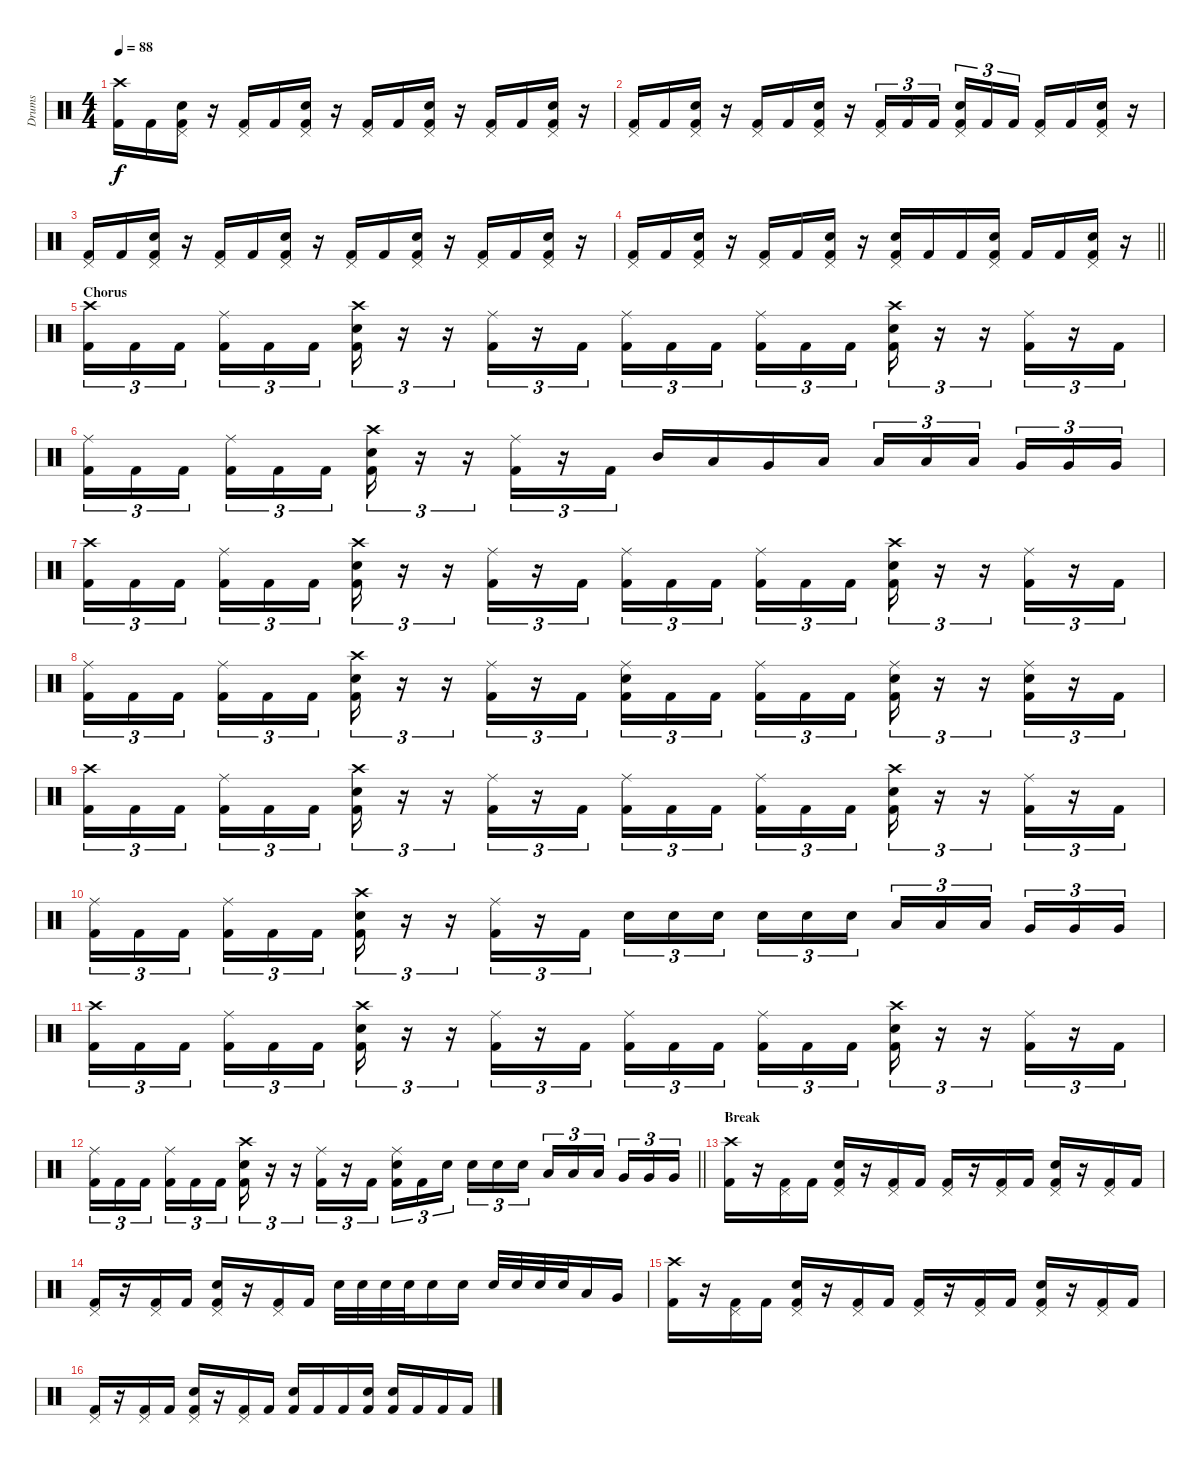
\track ("Drums" "Drums") {instrument percussion}
\staff {score}
\articulation defaults
\ts (4 4)
\tempo 88
\clef neutral
\ks c
("Crash high (hit)" "Kick (hit) 2").16{dy f} "Kick (hit) 2".16 ("Pedal Hi-Hat (hit)" "Snare (hit) 2" "Kick (hit) 2").16 r.16 ("Pedal Hi-Hat (hit)" "Kick (hit) 2").16 "Kick (hit) 2".16 ("Pedal Hi-Hat (hit)" "Snare (hit) 2" "Kick (hit) 2").16 r.16 ("Pedal Hi-Hat (hit)" "Kick (hit) 2").16 "Kick (hit) 2".16 ("Pedal Hi-Hat (hit)" "Snare (hit) 2" "Kick (hit) 2").16 r.16 ("Pedal Hi-Hat (hit)" "Kick (hit) 2").16 "Kick (hit) 2".16 ("Pedal Hi-Hat (hit)" "Snare (hit) 2" "Kick (hit) 2").16 r.16 |
("Pedal Hi-Hat (hit)" "Kick (hit) 2").16 "Kick (hit) 2".16 ("Pedal Hi-Hat (hit)" "Snare (hit) 2" "Kick (hit) 2").16 r.16 ("Pedal Hi-Hat (hit)" "Kick (hit) 2").16 "Kick (hit) 2".16 ("Pedal Hi-Hat (hit)" "Snare (hit) 2" "Kick (hit) 2").16 r.16 ("Pedal Hi-Hat (hit)" "Kick (hit) 2").16{tu (3 2)} "Kick (hit) 2".16{tu (3 2)} "Kick (hit) 2".16{tu (3 2) beam splitsecondary} ("Pedal Hi-Hat (hit)" "Snare (hit) 2" "Kick (hit) 2").16{tu (3 2)} "Kick (hit) 2".16{tu (3 2)} "Kick (hit) 2".16{tu (3 2)} ("Pedal Hi-Hat (hit)" "Kick (hit) 2").16 "Kick (hit) 2".16 ("Pedal Hi-Hat (hit)" "Snare (hit) 2" "Kick (hit) 2").16 r.16 |
("Pedal Hi-Hat (hit)" "Kick (hit) 2").16 "Kick (hit) 2".16 ("Pedal Hi-Hat (hit)" "Snare (hit) 2" "Kick (hit) 2").16 r.16 ("Pedal Hi-Hat (hit)" "Kick (hit) 2").16 "Kick (hit) 2".16 ("Pedal Hi-Hat (hit)" "Snare (hit) 2" "Kick (hit) 2").16 r.16 ("Pedal Hi-Hat (hit)" "Kick (hit) 2").16 "Kick (hit) 2".16 ("Pedal Hi-Hat (hit)" "Snare (hit) 2" "Kick (hit) 2").16 r.16 ("Pedal Hi-Hat (hit)" "Kick (hit) 2").16 "Kick (hit) 2".16 ("Pedal Hi-Hat (hit)" "Snare (hit) 2" "Kick (hit) 2").16 r.16 |
\barLineRight lightlight
("Pedal Hi-Hat (hit)" "Kick (hit) 2").16 "Kick (hit) 2".16 ("Pedal Hi-Hat (hit)" "Snare (hit) 2" "Kick (hit) 2").16 r.16 ("Pedal Hi-Hat (hit)" "Kick (hit) 2").16 "Kick (hit) 2".16 ("Pedal Hi-Hat (hit)" "Snare (hit) 2" "Kick (hit) 2").16 r.16 ("Pedal Hi-Hat (hit)" "Snare (hit) 2" "Kick (hit) 2").16 "Kick (hit) 2".16 "Kick (hit) 2".16 ("Pedal Hi-Hat (hit)" "Snare (hit) 2" "Kick (hit) 2").16 "Kick (hit) 2".16 "Kick (hit) 2".16 ("Pedal Hi-Hat (hit)" "Snare (hit) 2" "Kick (hit) 2").16 r.16 |
\section ("" "Chorus")
("Crash high (hit)" "Kick (hit) 2").16{tu (3 2)} "Kick (hit) 2".16{tu (3 2)} "Kick (hit) 2".16{tu (3 2) beam splitsecondary} ("Ride (middle)" "Kick (hit) 2").16{tu (3 2)} "Kick (hit) 2".16{tu (3 2)} "Kick (hit) 2".16{tu (3 2)} ("Crash high (hit)" "Snare (hit) 2" "Kick (hit) 2").16{tu (3 2)} r.16{tu (3 2)} r.16{tu (3 2)} ("Ride (middle)" "Kick (hit) 2").16{tu (3 2)} r.16{tu (3 2)} "Kick (hit) 2".16{tu (3 2)} ("Ride (middle)" "Kick (hit) 2").16{tu (3 2)} "Kick (hit) 2".16{tu (3 2)} "Kick (hit) 2".16{tu (3 2) beam splitsecondary} ("Ride (middle)" "Kick (hit) 2").16{tu (3 2)} "Kick (hit) 2".16{tu (3 2)} "Kick (hit) 2".16{tu (3 2)} ("Crash high (hit)" "Snare (hit) 2" "Kick (hit) 2").16{tu (3 2)} r.16{tu (3 2)} r.16{tu (3 2)} ("Ride (middle)" "Kick (hit) 2").16{tu (3 2)} r.16{tu (3 2)} "Kick (hit) 2".16{tu (3 2)} |
("Ride (middle)" "Kick (hit) 2").16{tu (3 2)} "Kick (hit) 2".16{tu (3 2)} "Kick (hit) 2".16{tu (3 2) beam splitsecondary} ("Ride (middle)" "Kick (hit) 2").16{tu (3 2)} "Kick (hit) 2".16{tu (3 2)} "Kick (hit) 2".16{tu (3 2)} ("Crash high (hit)" "Snare (hit) 2" "Kick (hit) 2").16{tu (3 2)} r.16{tu (3 2)} r.16{tu (3 2)} ("Ride (middle)" "Kick (hit) 2").16{tu (3 2)} r.16{tu (3 2)} "Kick (hit) 2".16{tu (3 2)} "Mid Tom (hit)".16 "Low Tom (hit)".16 "Very Low Tom (hit)".16 "Low Tom (hit)".16 "Low Tom (hit)".16{tu (3 2)} "Low Tom (hit)".16{tu (3 2)} "Low Tom (hit)".16{tu (3 2) beam splitsecondary} "Very Low Tom (hit)".16{tu (3 2)} "Very Low Tom (hit)".16{tu (3 2)} "Very Low Tom (hit)".16{tu (3 2)} |
("Crash high (hit)" "Kick (hit) 2").16{tu (3 2)} "Kick (hit) 2".16{tu (3 2)} "Kick (hit) 2".16{tu (3 2) beam splitsecondary} ("Ride (middle)" "Kick (hit) 2").16{tu (3 2)} "Kick (hit) 2".16{tu (3 2)} "Kick (hit) 2".16{tu (3 2)} ("Crash high (hit)" "Snare (hit) 2" "Kick (hit) 2").16{tu (3 2)} r.16{tu (3 2)} r.16{tu (3 2)} ("Ride (middle)" "Kick (hit) 2").16{tu (3 2)} r.16{tu (3 2)} "Kick (hit) 2".16{tu (3 2)} ("Ride (middle)" "Kick (hit) 2").16{tu (3 2)} "Kick (hit) 2".16{tu (3 2)} "Kick (hit) 2".16{tu (3 2) beam splitsecondary} ("Ride (middle)" "Kick (hit) 2").16{tu (3 2)} "Kick (hit) 2".16{tu (3 2)} "Kick (hit) 2".16{tu (3 2)} ("Crash high (hit)" "Snare (hit) 2" "Kick (hit) 2").16{tu (3 2)} r.16{tu (3 2)} r.16{tu (3 2)} ("Ride (middle)" "Kick (hit) 2").16{tu (3 2)} r.16{tu (3 2)} "Kick (hit) 2".16{tu (3 2)} |
("Ride (middle)" "Kick (hit) 2").16{tu (3 2)} "Kick (hit) 2".16{tu (3 2)} "Kick (hit) 2".16{tu (3 2) beam splitsecondary} ("Ride (middle)" "Kick (hit) 2").16{tu (3 2)} "Kick (hit) 2".16{tu (3 2)} "Kick (hit) 2".16{tu (3 2)} ("Crash high (hit)" "Snare (hit) 2" "Kick (hit) 2").16{tu (3 2)} r.16{tu (3 2)} r.16{tu (3 2)} ("Ride (middle)" "Kick (hit) 2").16{tu (3 2)} r.16{tu (3 2)} "Kick (hit) 2".16{tu (3 2)} ("Ride (middle)" "Snare (hit) 2" "Kick (hit) 2").16{tu (3 2)} "Kick (hit) 2".16{tu (3 2)} "Kick (hit) 2".16{tu (3 2) beam splitsecondary} ("Ride (middle)" "Kick (hit) 2").16{tu (3 2)} "Kick (hit) 2".16{tu (3 2)} "Kick (hit) 2".16{tu (3 2)} ("Ride (middle)" "Snare (hit) 2" "Kick (hit) 2").16{tu (3 2)} r.16{tu (3 2)} r.16{tu (3 2)} ("Ride (middle)" "Snare (hit) 2" "Kick (hit) 2").16{tu (3 2)} r.16{tu (3 2)} "Kick (hit) 2".16{tu (3 2)} |
("Crash high (hit)" "Kick (hit) 2").16{tu (3 2)} "Kick (hit) 2".16{tu (3 2)} "Kick (hit) 2".16{tu (3 2) beam splitsecondary} ("Ride (middle)" "Kick (hit) 2").16{tu (3 2)} "Kick (hit) 2".16{tu (3 2)} "Kick (hit) 2".16{tu (3 2)} ("Crash high (hit)" "Snare (hit) 2" "Kick (hit) 2").16{tu (3 2)} r.16{tu (3 2)} r.16{tu (3 2)} ("Ride (middle)" "Kick (hit) 2").16{tu (3 2)} r.16{tu (3 2)} "Kick (hit) 2".16{tu (3 2)} ("Ride (middle)" "Kick (hit) 2").16{tu (3 2)} "Kick (hit) 2".16{tu (3 2)} "Kick (hit) 2".16{tu (3 2) beam splitsecondary} ("Ride (middle)" "Kick (hit) 2").16{tu (3 2)} "Kick (hit) 2".16{tu (3 2)} "Kick (hit) 2".16{tu (3 2)} ("Crash high (hit)" "Snare (hit) 2" "Kick (hit) 2").16{tu (3 2)} r.16{tu (3 2)} r.16{tu (3 2)} ("Ride (middle)" "Kick (hit) 2").16{tu (3 2)} r.16{tu (3 2)} "Kick (hit) 2".16{tu (3 2)} |
("Ride (middle)" "Kick (hit) 2").16{tu (3 2)} "Kick (hit) 2".16{tu (3 2)} "Kick (hit) 2".16{tu (3 2) beam splitsecondary} ("Ride (middle)" "Kick (hit) 2").16{tu (3 2)} "Kick (hit) 2".16{tu (3 2)} "Kick (hit) 2".16{tu (3 2)} ("Crash high (hit)" "Snare (hit) 2" "Kick (hit) 2").16{tu (3 2)} r.16{tu (3 2)} r.16{tu (3 2)} ("Ride (middle)" "Kick (hit) 2").16{tu (3 2)} r.16{tu (3 2)} "Kick (hit) 2".16{tu (3 2)} "Snare (hit) 2".16{tu (3 2)} "Snare (hit) 2".16{tu (3 2)} "Snare (hit) 2".16{tu (3 2) beam splitsecondary} "Snare (hit) 2".16{tu (3 2)} "Snare (hit) 2".16{tu (3 2)} "Snare (hit) 2".16{tu (3 2)} "Low Tom (hit)".16{tu (3 2)} "Low Tom (hit)".16{tu (3 2)} "Low Tom (hit)".16{tu (3 2) beam splitsecondary} "Very Low Tom (hit)".16{tu (3 2)} "Very Low Tom (hit)".16{tu (3 2)} "Very Low Tom (hit)".16{tu (3 2)} |
("Crash high (hit)" "Kick (hit) 2").16{tu (3 2)} "Kick (hit) 2".16{tu (3 2)} "Kick (hit) 2".16{tu (3 2) beam splitsecondary} ("Ride (middle)" "Kick (hit) 2").16{tu (3 2)} "Kick (hit) 2".16{tu (3 2)} "Kick (hit) 2".16{tu (3 2)} ("Crash high (hit)" "Snare (hit) 2" "Kick (hit) 2").16{tu (3 2)} r.16{tu (3 2)} r.16{tu (3 2)} ("Ride (middle)" "Kick (hit) 2").16{tu (3 2)} r.16{tu (3 2)} "Kick (hit) 2".16{tu (3 2)} ("Ride (middle)" "Kick (hit) 2").16{tu (3 2)} "Kick (hit) 2".16{tu (3 2)} "Kick (hit) 2".16{tu (3 2) beam splitsecondary} ("Ride (middle)" "Kick (hit) 2").16{tu (3 2)} "Kick (hit) 2".16{tu (3 2)} "Kick (hit) 2".16{tu (3 2)} ("Crash high (hit)" "Snare (hit) 2" "Kick (hit) 2").16{tu (3 2)} r.16{tu (3 2)} r.16{tu (3 2)} ("Ride (middle)" "Kick (hit) 2").16{tu (3 2)} r.16{tu (3 2)} "Kick (hit) 2".16{tu (3 2)} |
\barLineRight lightlight
("Ride (middle)" "Kick (hit) 2").16{tu (3 2)} "Kick (hit) 2".16{tu (3 2)} "Kick (hit) 2".16{tu (3 2) beam splitsecondary} ("Ride (middle)" "Kick (hit) 2").16{tu (3 2)} "Kick (hit) 2".16{tu (3 2)} "Kick (hit) 2".16{tu (3 2)} ("Crash high (hit)" "Snare (hit) 2" "Kick (hit) 2").16{tu (3 2)} r.16{tu (3 2)} r.16{tu (3 2)} ("Ride (middle)" "Kick (hit) 2").16{tu (3 2)} r.16{tu (3 2)} "Kick (hit) 2".16{tu (3 2)} ("Ride (middle)" "Snare (hit) 2" "Kick (hit) 2").16{tu (3 2)} "Kick (hit) 2".16{tu (3 2)} "Snare (hit) 2".16{tu (3 2) beam splitsecondary} "Snare (hit) 2".16{tu (3 2)} "Snare (hit) 2".16{tu (3 2)} "Snare (hit) 2".16{tu (3 2)} "Low Tom (hit)".16{tu (3 2)} "Low Tom (hit)".16{tu (3 2)} "Low Tom (hit)".16{tu (3 2) beam splitsecondary} "Very Low Tom (hit)".16{tu (3 2)} "Very Low Tom (hit)".16{tu (3 2)} "Very Low Tom (hit)".16{tu (3 2)} |
\section ("" "Break")
("Crash high (hit)" "Kick (hit) 2").16 r.16 ("Pedal Hi-Hat (hit)" "Kick (hit) 2").16 "Kick (hit) 2".16 ("Pedal Hi-Hat (hit)" "Snare (hit) 2" "Kick (hit) 2").16 r.16 ("Pedal Hi-Hat (hit)" "Kick (hit) 2").16 "Kick (hit) 2".16 ("Pedal Hi-Hat (hit)" "Kick (hit) 2").16 r.16 ("Pedal Hi-Hat (hit)" "Kick (hit) 2").16 "Kick (hit) 2".16 ("Pedal Hi-Hat (hit)" "Snare (hit) 2" "Kick (hit) 2").16 r.16 ("Pedal Hi-Hat (hit)" "Kick (hit) 2").16 "Kick (hit) 2".16 |
("Pedal Hi-Hat (hit)" "Kick (hit) 2").16 r.16 ("Pedal Hi-Hat (hit)" "Kick (hit) 2").16 "Kick (hit) 2".16 ("Pedal Hi-Hat (hit)" "Snare (hit) 2" "Kick (hit) 2").16 r.16 ("Pedal Hi-Hat (hit)" "Kick (hit) 2").16 "Kick (hit) 2".16 "Snare (hit) 2".32 "Snare (hit) 2".32 "Snare (hit) 2".32 "Snare (hit) 2".32 "Snare (hit) 2".16 "Snare (hit) 2".16 "Snare (hit) 2".32 "Snare (hit) 2".32 "Snare (hit) 2".32 "Snare (hit) 2".32 "Low Tom (hit)".16 "Very Low Tom (hit)".16 |
("Crash high (hit)" "Kick (hit) 2").16 r.16 ("Pedal Hi-Hat (hit)" "Kick (hit) 2").16 "Kick (hit) 2".16 ("Pedal Hi-Hat (hit)" "Snare (hit) 2" "Kick (hit) 2").16 r.16 ("Pedal Hi-Hat (hit)" "Kick (hit) 2").16 "Kick (hit) 2".16 ("Pedal Hi-Hat (hit)" "Kick (hit) 2").16 r.16 ("Pedal Hi-Hat (hit)" "Kick (hit) 2").16 "Kick (hit) 2".16 ("Pedal Hi-Hat (hit)" "Snare (hit) 2" "Kick (hit) 2").16 r.16 ("Pedal Hi-Hat (hit)" "Kick (hit) 2").16 "Kick (hit) 2".16 |
("Pedal Hi-Hat (hit)" "Kick (hit) 2").16 r.16 ("Pedal Hi-Hat (hit)" "Kick (hit) 2").16 "Kick (hit) 2".16 ("Pedal Hi-Hat (hit)" "Snare (hit) 2" "Kick (hit) 2").16 r.16 ("Pedal Hi-Hat (hit)" "Kick (hit) 2").16 "Kick (hit) 2".16 ("Snare (hit) 2" "Kick (hit) 2").16 "Kick (hit) 2".16 "Kick (hit) 2".16 ("Snare (hit) 2" "Kick (hit) 2").16 ("Snare (hit) 2" "Kick (hit) 2").16 "Kick (hit) 2".16 "Kick (hit) 2".16 "Kick (hit) 2".16
